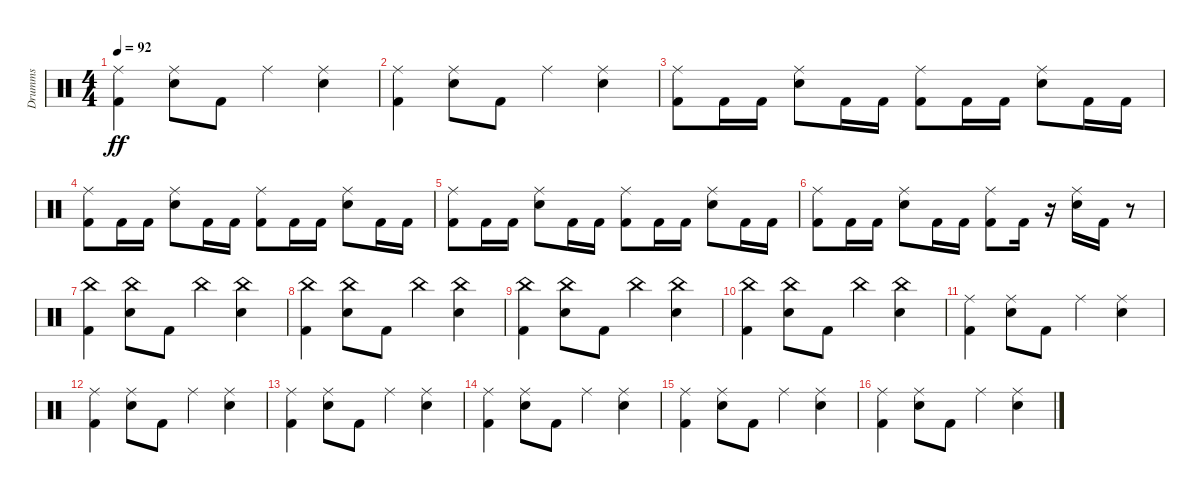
\track ("Drumms" "Drumms") {instrument percussion}
\staff {score}
\articulation defaults
\ts (4 4)
\tempo 92
\clef neutral
\ks c
("Ride (middle)" "Kick (hit) 2").4{dy ff} ("Ride (middle)" "Electric Snare (hit)").8 "Kick (hit) 2".8 "Ride (middle)".4 ("Ride (middle)" "Electric Snare (hit)").4 |
("Ride (middle)" "Kick (hit) 2").4 ("Ride (middle)" "Electric Snare (hit)").8 "Kick (hit) 2".8 "Ride (middle)".4 ("Ride (middle)" "Electric Snare (hit)").4 |
("Ride (middle)" "Kick (hit) 2").8 "Kick (hit) 2".16 "Kick (hit) 2".16 ("Ride (middle)" "Electric Snare (hit)").8 "Kick (hit) 2".16 "Kick (hit) 2".16 ("Ride (middle)" "Kick (hit) 2").8 "Kick (hit) 2".16 "Kick (hit) 2".16 ("Ride (middle)" "Electric Snare (hit)").8 "Kick (hit) 2".16 "Kick (hit) 2".16 |
("Ride (middle)" "Kick (hit) 2").8 "Kick (hit) 2".16 "Kick (hit) 2".16 ("Ride (middle)" "Electric Snare (hit)").8 "Kick (hit) 2".16 "Kick (hit) 2".16 ("Ride (middle)" "Kick (hit) 2").8 "Kick (hit) 2".16 "Kick (hit) 2".16 ("Ride (middle)" "Electric Snare (hit)").8 "Kick (hit) 2".16 "Kick (hit) 2".16 |
("Ride (middle)" "Kick (hit) 2").8 "Kick (hit) 2".16 "Kick (hit) 2".16 ("Ride (middle)" "Electric Snare (hit)").8 "Kick (hit) 2".16 "Kick (hit) 2".16 ("Ride (middle)" "Kick (hit) 2").8 "Kick (hit) 2".16 "Kick (hit) 2".16 ("Ride (middle)" "Electric Snare (hit)").8 "Kick (hit) 2".16 "Kick (hit) 2".16 |
("Ride (middle)" "Kick (hit) 2").8 "Kick (hit) 2".16 "Kick (hit) 2".16 ("Ride (middle)" "Electric Snare (hit)").8 "Kick (hit) 2".16 "Kick (hit) 2".16 ("Ride (middle)" "Kick (hit) 2").8 "Kick (hit) 2".16 r.16 ("Ride (middle)" "Electric Snare (hit)").16 "Kick (hit) 2".16 r.8 |
("China (hit)" "Kick (hit) 2").4 ("China (hit)" "Electric Snare (hit)").8 "Kick (hit) 2".8 "China (hit)".4 ("China (hit)" "Electric Snare (hit)").4 |
("China (hit)" "Kick (hit) 2").4 ("China (hit)" "Electric Snare (hit)").8 "Kick (hit) 2".8 "China (hit)".4 ("China (hit)" "Electric Snare (hit)").4 |
("China (hit)" "Kick (hit) 2").4 ("China (hit)" "Electric Snare (hit)").8 "Kick (hit) 2".8 "China (hit)".4 ("China (hit)" "Electric Snare (hit)").4 |
("China (hit)" "Kick (hit) 2").4 ("China (hit)" "Electric Snare (hit)").8 "Kick (hit) 2".8 "China (hit)".4 ("China (hit)" "Electric Snare (hit)").4 |
("Ride (middle)" "Kick (hit) 2").4 ("Ride (middle)" "Electric Snare (hit)").8 "Kick (hit) 2".8 "Ride (middle)".4 ("Ride (middle)" "Electric Snare (hit)").4 |
("Ride (middle)" "Kick (hit) 2").4 ("Ride (middle)" "Electric Snare (hit)").8 "Kick (hit) 2".8 "Ride (middle)".4 ("Ride (middle)" "Electric Snare (hit)").4 |
("Ride (middle)" "Kick (hit) 2").4 ("Ride (middle)" "Electric Snare (hit)").8 "Kick (hit) 2".8 "Ride (middle)".4 ("Ride (middle)" "Electric Snare (hit)").4 |
("Ride (middle)" "Kick (hit) 2").4 ("Ride (middle)" "Electric Snare (hit)").8 "Kick (hit) 2".8 "Ride (middle)".4 ("Ride (middle)" "Electric Snare (hit)").4 |
("Ride (middle)" "Kick (hit) 2").4 ("Ride (middle)" "Electric Snare (hit)").8 "Kick (hit) 2".8 "Ride (middle)".4 ("Ride (middle)" "Electric Snare (hit)").4 |
("Ride (middle)" "Kick (hit) 2").4 ("Ride (middle)" "Electric Snare (hit)").8 "Kick (hit) 2".8 "Ride (middle)".4 ("Ride (middle)" "Electric Snare (hit)").4
